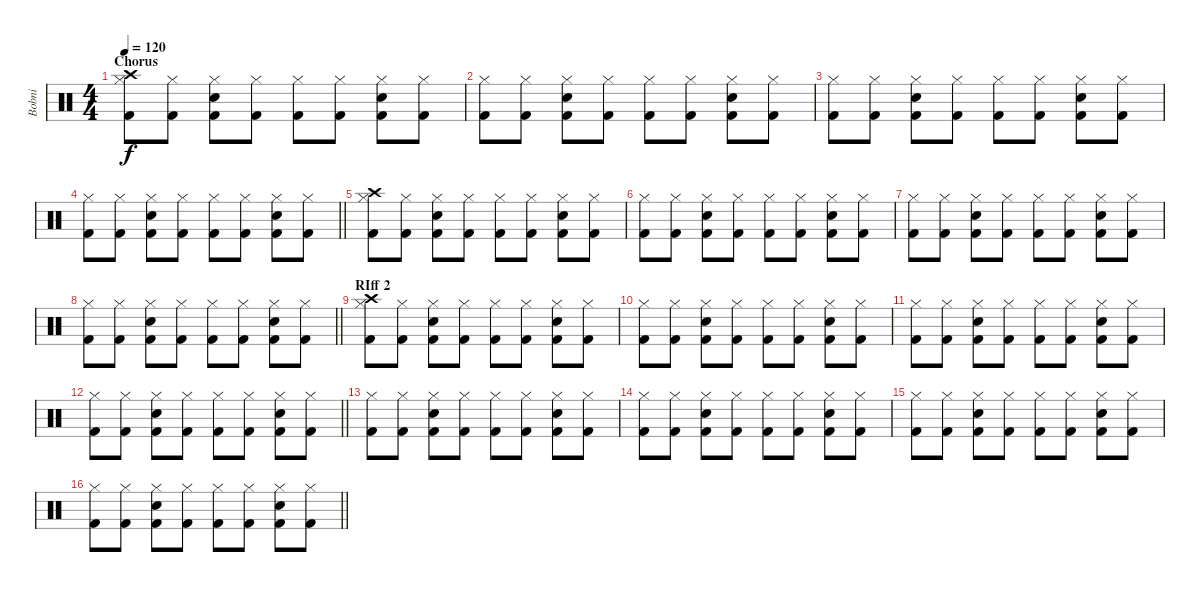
\track ("Bobni" "Bobni") {instrument percussion}
\staff {score}
\articulation defaults
\ts (4 4)
\section ("" "Chorus")
\tempo 120
\clef neutral
\ks c
("Crash high (hit)" "Hi-Hat (closed)" "Kick (hit) 2").8{dy f} ("Hi-Hat (closed)" "Kick (hit) 2").8 ("Hi-Hat (closed)" "Electric Snare (hit)" "Kick (hit) 2").8 ("Hi-Hat (closed)" "Kick (hit) 2").8 ("Hi-Hat (closed)" "Kick (hit) 2").8 ("Hi-Hat (closed)" "Kick (hit) 2").8 ("Hi-Hat (closed)" "Electric Snare (hit)" "Kick (hit) 2").8 ("Hi-Hat (closed)" "Kick (hit) 2").8 |
("Hi-Hat (closed)" "Kick (hit) 2").8 ("Hi-Hat (closed)" "Kick (hit) 2").8 ("Hi-Hat (closed)" "Electric Snare (hit)" "Kick (hit) 2").8 ("Hi-Hat (closed)" "Kick (hit) 2").8 ("Hi-Hat (closed)" "Kick (hit) 2").8 ("Hi-Hat (closed)" "Kick (hit) 2").8 ("Hi-Hat (closed)" "Electric Snare (hit)" "Kick (hit) 2").8 ("Hi-Hat (closed)" "Kick (hit) 2").8 |
("Hi-Hat (closed)" "Kick (hit) 2").8 ("Hi-Hat (closed)" "Kick (hit) 2").8 ("Hi-Hat (closed)" "Electric Snare (hit)" "Kick (hit) 2").8 ("Hi-Hat (closed)" "Kick (hit) 2").8 ("Hi-Hat (closed)" "Kick (hit) 2").8 ("Hi-Hat (closed)" "Kick (hit) 2").8 ("Hi-Hat (closed)" "Electric Snare (hit)" "Kick (hit) 2").8 ("Hi-Hat (closed)" "Kick (hit) 2").8 |
\barLineRight lightlight
("Hi-Hat (closed)" "Kick (hit) 2").8 ("Hi-Hat (closed)" "Kick (hit) 2").8 ("Hi-Hat (closed)" "Electric Snare (hit)" "Kick (hit) 2").8 ("Hi-Hat (closed)" "Kick (hit) 2").8 ("Hi-Hat (closed)" "Kick (hit) 2").8 ("Hi-Hat (closed)" "Kick (hit) 2").8 ("Hi-Hat (closed)" "Electric Snare (hit)" "Kick (hit) 2").8 ("Hi-Hat (closed)" "Kick (hit) 2").8 |
("Crash high (hit)" "Hi-Hat (closed)" "Kick (hit) 2").8 ("Hi-Hat (closed)" "Kick (hit) 2").8 ("Hi-Hat (closed)" "Electric Snare (hit)" "Kick (hit) 2").8 ("Hi-Hat (closed)" "Kick (hit) 2").8 ("Hi-Hat (closed)" "Kick (hit) 2").8 ("Hi-Hat (closed)" "Kick (hit) 2").8 ("Hi-Hat (closed)" "Electric Snare (hit)" "Kick (hit) 2").8 ("Hi-Hat (closed)" "Kick (hit) 2").8 |
("Hi-Hat (closed)" "Kick (hit) 2").8 ("Hi-Hat (closed)" "Kick (hit) 2").8 ("Hi-Hat (closed)" "Electric Snare (hit)" "Kick (hit) 2").8 ("Hi-Hat (closed)" "Kick (hit) 2").8 ("Hi-Hat (closed)" "Kick (hit) 2").8 ("Hi-Hat (closed)" "Kick (hit) 2").8 ("Hi-Hat (closed)" "Electric Snare (hit)" "Kick (hit) 2").8 ("Hi-Hat (closed)" "Kick (hit) 2").8 |
("Hi-Hat (closed)" "Kick (hit) 2").8 ("Hi-Hat (closed)" "Kick (hit) 2").8 ("Hi-Hat (closed)" "Electric Snare (hit)" "Kick (hit) 2").8 ("Hi-Hat (closed)" "Kick (hit) 2").8 ("Hi-Hat (closed)" "Kick (hit) 2").8 ("Hi-Hat (closed)" "Kick (hit) 2").8 ("Hi-Hat (closed)" "Electric Snare (hit)" "Kick (hit) 2").8 ("Hi-Hat (closed)" "Kick (hit) 2").8 |
\barLineRight lightlight
("Hi-Hat (closed)" "Kick (hit) 2").8 ("Hi-Hat (closed)" "Kick (hit) 2").8 ("Hi-Hat (closed)" "Electric Snare (hit)" "Kick (hit) 2").8 ("Hi-Hat (closed)" "Kick (hit) 2").8 ("Hi-Hat (closed)" "Kick (hit) 2").8 ("Hi-Hat (closed)" "Kick (hit) 2").8 ("Hi-Hat (closed)" "Electric Snare (hit)" "Kick (hit) 2").8 ("Hi-Hat (closed)" "Kick (hit) 2").8 |
\section ("" "RIff 2")
("Crash high (hit)" "Hi-Hat (closed)" "Kick (hit) 2").8 ("Hi-Hat (closed)" "Kick (hit) 2").8 ("Hi-Hat (closed)" "Electric Snare (hit)" "Kick (hit) 2").8 ("Hi-Hat (closed)" "Kick (hit) 2").8 ("Hi-Hat (closed)" "Kick (hit) 2").8 ("Hi-Hat (closed)" "Kick (hit) 2").8 ("Hi-Hat (closed)" "Electric Snare (hit)" "Kick (hit) 2").8 ("Hi-Hat (closed)" "Kick (hit) 2").8 |
("Hi-Hat (closed)" "Kick (hit) 2").8 ("Hi-Hat (closed)" "Kick (hit) 2").8 ("Hi-Hat (closed)" "Electric Snare (hit)" "Kick (hit) 2").8 ("Hi-Hat (closed)" "Kick (hit) 2").8 ("Hi-Hat (closed)" "Kick (hit) 2").8 ("Hi-Hat (closed)" "Kick (hit) 2").8 ("Hi-Hat (closed)" "Electric Snare (hit)" "Kick (hit) 2").8 ("Hi-Hat (closed)" "Kick (hit) 2").8 |
("Hi-Hat (closed)" "Kick (hit) 2").8 ("Hi-Hat (closed)" "Kick (hit) 2").8 ("Hi-Hat (closed)" "Electric Snare (hit)" "Kick (hit) 2").8 ("Hi-Hat (closed)" "Kick (hit) 2").8 ("Hi-Hat (closed)" "Kick (hit) 2").8 ("Hi-Hat (closed)" "Kick (hit) 2").8 ("Hi-Hat (closed)" "Electric Snare (hit)" "Kick (hit) 2").8 ("Hi-Hat (closed)" "Kick (hit) 2").8 |
\barLineRight lightlight
("Hi-Hat (closed)" "Kick (hit) 2").8 ("Hi-Hat (closed)" "Kick (hit) 2").8 ("Hi-Hat (closed)" "Electric Snare (hit)" "Kick (hit) 2").8 ("Hi-Hat (closed)" "Kick (hit) 2").8 ("Hi-Hat (closed)" "Kick (hit) 2").8 ("Hi-Hat (closed)" "Kick (hit) 2").8 ("Hi-Hat (closed)" "Electric Snare (hit)" "Kick (hit) 2").8 ("Hi-Hat (closed)" "Kick (hit) 2").8 |
("Hi-Hat (closed)" "Kick (hit) 2").8 ("Hi-Hat (closed)" "Kick (hit) 2").8 ("Hi-Hat (closed)" "Electric Snare (hit)" "Kick (hit) 2").8 ("Hi-Hat (closed)" "Kick (hit) 2").8 ("Hi-Hat (closed)" "Kick (hit) 2").8 ("Hi-Hat (closed)" "Kick (hit) 2").8 ("Hi-Hat (closed)" "Electric Snare (hit)" "Kick (hit) 2").8 ("Hi-Hat (closed)" "Kick (hit) 2").8 |
("Hi-Hat (closed)" "Kick (hit) 2").8 ("Hi-Hat (closed)" "Kick (hit) 2").8 ("Hi-Hat (closed)" "Electric Snare (hit)" "Kick (hit) 2").8 ("Hi-Hat (closed)" "Kick (hit) 2").8 ("Hi-Hat (closed)" "Kick (hit) 2").8 ("Hi-Hat (closed)" "Kick (hit) 2").8 ("Hi-Hat (closed)" "Electric Snare (hit)" "Kick (hit) 2").8 ("Hi-Hat (closed)" "Kick (hit) 2").8 |
("Hi-Hat (closed)" "Kick (hit) 2").8 ("Hi-Hat (closed)" "Kick (hit) 2").8 ("Hi-Hat (closed)" "Electric Snare (hit)" "Kick (hit) 2").8 ("Hi-Hat (closed)" "Kick (hit) 2").8 ("Hi-Hat (closed)" "Kick (hit) 2").8 ("Hi-Hat (closed)" "Kick (hit) 2").8 ("Hi-Hat (closed)" "Electric Snare (hit)" "Kick (hit) 2").8 ("Hi-Hat (closed)" "Kick (hit) 2").8 |
\barLineRight lightlight
("Hi-Hat (closed)" "Kick (hit) 2").8 ("Hi-Hat (closed)" "Kick (hit) 2").8 ("Hi-Hat (closed)" "Electric Snare (hit)" "Kick (hit) 2").8 ("Hi-Hat (closed)" "Kick (hit) 2").8 ("Hi-Hat (closed)" "Kick (hit) 2").8 ("Hi-Hat (closed)" "Kick (hit) 2").8 ("Hi-Hat (closed)" "Electric Snare (hit)" "Kick (hit) 2").8 ("Hi-Hat (closed)" "Kick (hit) 2").8
